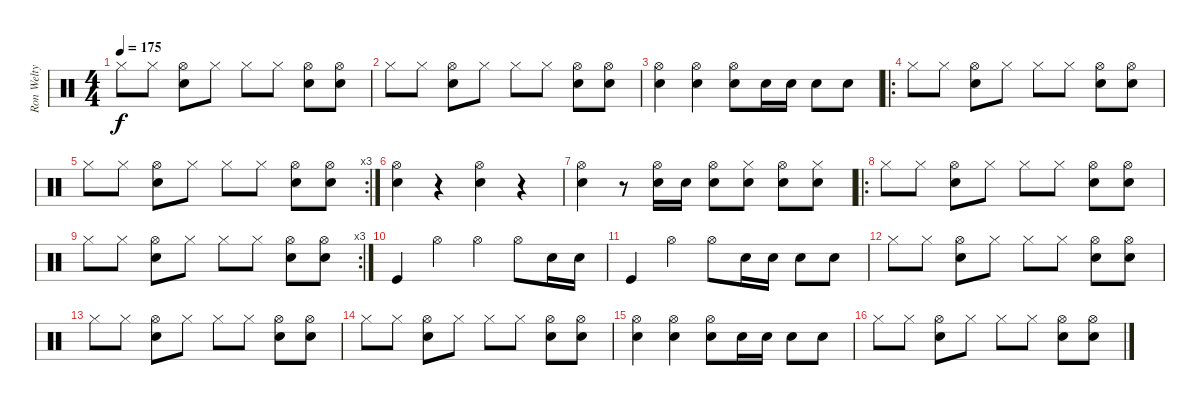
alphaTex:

\track ("Ron Welty" "Ron Welty") {instrument percussion}
\staff {score}
\articulation defaults
\ts (4 4)
\tempo 175
\clef neutral
\ks c "Hi-Hat (closed)".8{dy f} "Hi-Hat (closed)".8
("Snare (hit) 2" "Hi-Hat (open)").8 "Hi-Hat (closed)".8 "Hi-Hat (closed)".8 "Hi-Hat (closed)".8 ("Snare (hit) 2" "Hi-Hat (open)").8 ("Snare (hit) 2" "Hi-Hat (open)").8 |
"Hi-Hat (closed)".8 "Hi-Hat (closed)".8 ("Snare (hit) 2" "Hi-Hat (open)").8 "Hi-Hat (closed)".8 "Hi-Hat (closed)".8 "Hi-Hat (closed)".8 ("Snare (hit) 2" "Hi-Hat (open)").8 ("Snare (hit) 2" "Hi-Hat (open)").8 |
("Hi-Hat (open)" "Snare (hit) 2").4 ("Hi-Hat (open)" "Snare (hit) 2").4 ("Hi-Hat (open)" "Snare (hit) 2").8 "Snare (hit) 2".16 "Snare (hit) 2".16 "Snare (hit) 2".8 "Snare (hit) 2".8 |
\ro "Hi-Hat (closed)".8 "Hi-Hat (closed)".8
("Snare (hit) 2" "Hi-Hat (open)").8 "Hi-Hat (closed)".8 "Hi-Hat (closed)".8 "Hi-Hat (closed)".8 ("Snare (hit) 2" "Hi-Hat (open)").8 ("Snare (hit) 2" "Hi-Hat (open)").8 |
\rc 3 "Hi-Hat (closed)".8 "Hi-Hat (closed)".8
("Snare (hit) 2" "Hi-Hat (open)").8 "Hi-Hat (closed)".8 "Hi-Hat (closed)".8 "Hi-Hat (closed)".8 ("Snare (hit) 2" "Hi-Hat (open)").8 ("Snare (hit) 2" "Hi-Hat (open)").8 |
("Snare (hit) 2" "Hi-Hat (open)").4 r.4 ("Snare (hit) 2" "Hi-Hat (open)").4 r.4 |
("Snare (hit) 2" "Hi-Hat (open)").4 r.8 ("Snare (hit) 2" "Hi-Hat (open)").16 "Snare (hit) 2".16 ("Snare (hit) 2" "Hi-Hat (open)").8 ("Snare (hit) 2" "Hi-Hat (closed)").8 ("Snare (hit) 2" "Hi-Hat (open)").8 ("Snare (hit) 2" "Hi-Hat (closed)").8 |
\ro "Hi-Hat (closed)".8 "Hi-Hat (closed)".8
("Snare (hit) 2" "Hi-Hat (open)").8 "Hi-Hat (closed)".8 "Hi-Hat (closed)".8 "Hi-Hat (closed)".8 ("Snare (hit) 2" "Hi-Hat (open)").8 ("Snare (hit) 2" "Hi-Hat (open)").8 |
\rc 3 "Hi-Hat (closed)".8 "Hi-Hat (closed)".8
("Snare (hit) 2" "Hi-Hat (open)").8 "Hi-Hat (closed)".8 "Hi-Hat (closed)".8 "Hi-Hat (closed)".8 ("Snare (hit) 2" "Hi-Hat (open)").8 ("Snare (hit) 2" "Hi-Hat (open)").8 |
"Kick (hit)".4 "Hi-Hat (open)".4 "Hi-Hat (open)".4 "Hi-Hat (open)".8 "Snare (hit) 2".16 "Snare (hit) 2".16 |
"Kick (hit)".4 "Hi-Hat (open)".4 "Hi-Hat (open)".8 "Snare (hit) 2".16 "Snare (hit) 2".16 "Snare (hit) 2".8 "Snare (hit) 2".8 |
"Hi-Hat (closed)".8 "Hi-Hat (closed)".8 ("Snare (hit) 2" "Hi-Hat (open)").8 "Hi-Hat (closed)".8 "Hi-Hat (closed)".8 "Hi-Hat (closed)".8 ("Snare (hit) 2" "Hi-Hat (open)").8 ("Snare (hit) 2" "Hi-Hat (open)").8 |
"Hi-Hat (closed)".8 "Hi-Hat (closed)".8 ("Snare (hit) 2" "Hi-Hat (open)").8 "Hi-Hat (closed)".8 "Hi-Hat (closed)".8 "Hi-Hat (closed)".8 ("Snare (hit) 2" "Hi-Hat (open)").8 ("Snare (hit) 2" "Hi-Hat (open)").8 |
"Hi-Hat (closed)".8 "Hi-Hat (closed)".8 ("Snare (hit) 2" "Hi-Hat (open)").8 "Hi-Hat (closed)".8 "Hi-Hat (closed)".8 "Hi-Hat (closed)".8 ("Snare (hit) 2" "Hi-Hat (open)").8 ("Snare (hit) 2" "Hi-Hat (open)").8 |
("Hi-Hat (open)" "Snare (hit) 2").4 ("Hi-Hat (open)" "Snare (hit) 2").4 ("Hi-Hat (open)" "Snare (hit) 2").8 "Snare (hit) 2".16 "Snare (hit) 2".16 "Snare (hit) 2".8 "Snare (hit) 2".8 |
"Hi-Hat (closed)".8 "Hi-Hat (closed)".8 ("Snare (hit) 2" "Hi-Hat (open)").8 "Hi-Hat (closed)".8 "Hi-Hat (closed)".8 "Hi-Hat (closed)".8 ("Snare (hit) 2" "Hi-Hat (open)").8 ("Snare (hit) 2" "Hi-Hat (open)").8
